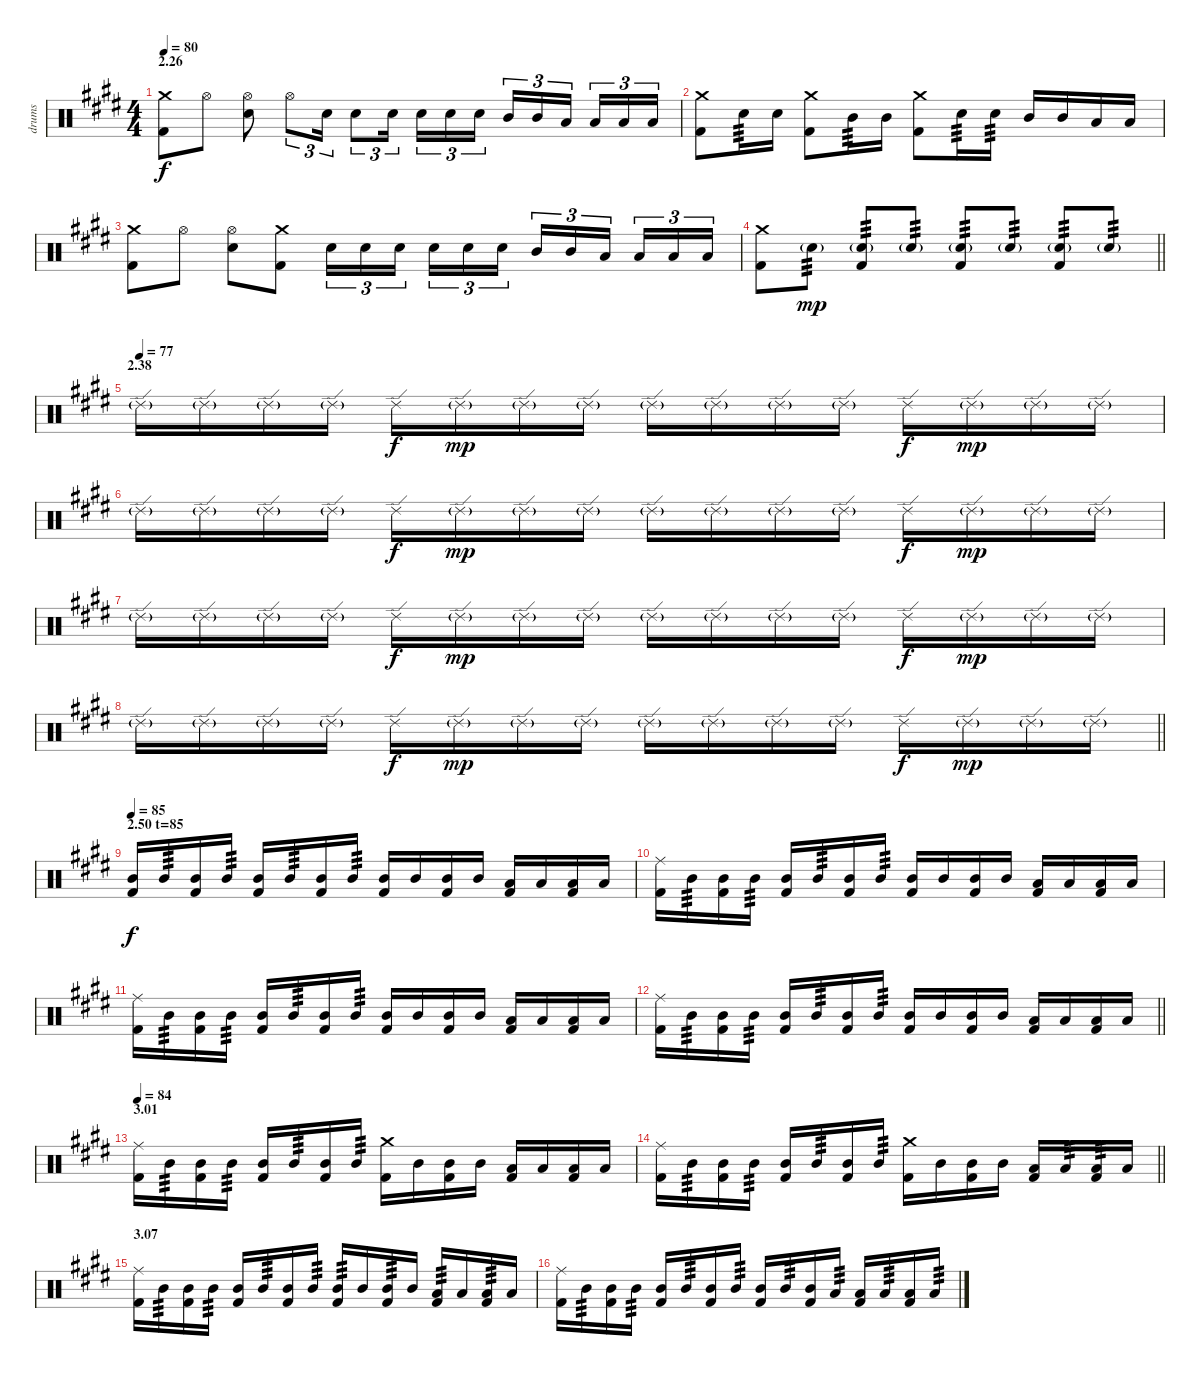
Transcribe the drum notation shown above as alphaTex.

\track ("drums" "drums") {instrument percussion}
\staff {score}
\articulation defaults
\ts (4 4)
\section ("" "2.26")
\tempo 80
\clef neutral
\ks e
("Crash medium (hit)" "Kick (hit) 2").8{dy f} "Hi-Hat (open)".8 ("Hi-Hat (open)" "Electric Snare (hit)").8 "Hi-Hat (open)".8{tu (3 2)} "Electric Snare (hit)".16{tu (3 2)} "Electric Snare (hit)".8{tu (3 2)} "Electric Snare (hit)".16{tu (3 2) beam splitsecondary} "Electric Snare (hit)".16{tu (3 2)} "Electric Snare (hit)".16{tu (3 2)} "Electric Snare (hit)".16{tu (3 2)} "Mid Tom (hit)".16{tu (3 2)} "Mid Tom (hit)".16{tu (3 2)} "Low Tom (hit)".16{tu (3 2) beam splitsecondary} "Low Tom (hit)".16{tu (3 2)} "Low Tom (hit)".16{tu (3 2)} "Low Tom (hit)".16{tu (3 2)} |
("Crash medium (hit)" "Kick (hit) 2").8 "Electric Snare (hit)".16{tp 3} "Electric Snare (hit)".16 ("Crash medium (hit)" "Kick (hit) 2").8 "Mid Tom (hit)".16{tp 3} "Mid Tom (hit)".16 ("Crash medium (hit)" "Kick (hit) 2").8 "Electric Snare (hit)".16{tp 3} "Electric Snare (hit)".16{tp 3} "Mid Tom (hit)".16 "Mid Tom (hit)".16 "Low Tom (hit)".16 "Low Tom (hit)".16 |
("Crash medium (hit)" "Kick (hit) 2").8 "Hi-Hat (open)".8 ("Hi-Hat (open)" "Electric Snare (hit)").8 ("Crash medium (hit)" "Kick (hit) 2").8 "Electric Snare (hit)".16{tu (3 2)} "Electric Snare (hit)".16{tu (3 2)} "Electric Snare (hit)".16{tu (3 2) beam splitsecondary} "Electric Snare (hit)".16{tu (3 2)} "Electric Snare (hit)".16{tu (3 2)} "Electric Snare (hit)".16{tu (3 2)} "Mid Tom (hit)".16{tu (3 2)} "Mid Tom (hit)".16{tu (3 2)} "Low Tom (hit)".16{tu (3 2) beam splitsecondary} "Low Tom (hit)".16{tu (3 2)} "Low Tom (hit)".16{tu (3 2)} "Low Tom (hit)".16{tu (3 2)} |
\barLineRight lightlight
("Crash medium (hit)" "Kick (hit) 2").8 "Electric Snare (hit)"{g}.8{tp 3 dy mp} ("Electric Snare (hit)"{g} "Kick (hit) 2").8{tp 3} "Electric Snare (hit)"{g}.8{tp 3} ("Electric Snare (hit)"{g} "Kick (hit) 2").8{tp 3} "Electric Snare (hit)"{g}.8{tp 3} ("Electric Snare (hit)"{g} "Kick (hit) 2").8{tp 3} "Electric Snare (hit)"{g}.8{tp 3} |
\section ("" "2.38")
\tempo (77)
"Ride (edge) 2"{g}.16 "Ride (edge) 2"{g}.16 "Ride (edge) 2"{g}.16 "Ride (edge) 2"{g}.16 "Ride (edge) 2".16{dy f} "Ride (edge) 2"{g}.16{dy mp} "Ride (edge) 2"{g}.16 "Ride (edge) 2"{g}.16 "Ride (edge) 2"{g}.16 "Ride (edge) 2"{g}.16 "Ride (edge) 2"{g}.16 "Ride (edge) 2"{g}.16 "Ride (edge) 2".16{dy f} "Ride (edge) 2"{g}.16{dy mp} "Ride (edge) 2"{g}.16 "Ride (edge) 2"{g}.16 |
"Ride (edge) 2"{g}.16 "Ride (edge) 2"{g}.16 "Ride (edge) 2"{g}.16 "Ride (edge) 2"{g}.16 "Ride (edge) 2".16{dy f} "Ride (edge) 2"{g}.16{dy mp} "Ride (edge) 2"{g}.16 "Ride (edge) 2"{g}.16 "Ride (edge) 2"{g}.16 "Ride (edge) 2"{g}.16 "Ride (edge) 2"{g}.16 "Ride (edge) 2"{g}.16 "Ride (edge) 2".16{dy f} "Ride (edge) 2"{g}.16{dy mp} "Ride (edge) 2"{g}.16 "Ride (edge) 2"{g}.16 |
"Ride (edge) 2"{g}.16 "Ride (edge) 2"{g}.16 "Ride (edge) 2"{g}.16 "Ride (edge) 2"{g}.16 "Ride (edge) 2".16{dy f} "Ride (edge) 2"{g}.16{dy mp} "Ride (edge) 2"{g}.16 "Ride (edge) 2"{g}.16 "Ride (edge) 2"{g}.16 "Ride (edge) 2"{g}.16 "Ride (edge) 2"{g}.16 "Ride (edge) 2"{g}.16 "Ride (edge) 2".16{dy f} "Ride (edge) 2"{g}.16{dy mp} "Ride (edge) 2"{g}.16 "Ride (edge) 2"{g}.16 |
\barLineRight lightlight "Ride (edge) 2"{g}.16 "Ride (edge) 2"{g}.16 "Ride (edge) 2"{g}.16 "Ride (edge) 2"{g}.16 "Ride (edge) 2".16{dy f} "Ride (edge) 2"{g}.16{dy mp} "Ride (edge) 2"{g}.16 "Ride (edge) 2"{g}.16 "Ride (edge) 2"{g}.16 "Ride (edge) 2"{g}.16 "Ride (edge) 2"{g}.16 "Ride (edge) 2"{g}.16 "Ride (edge) 2".16{dy f} "Ride (edge) 2"{g}.16{dy mp} "Ride (edge) 2"{g}.16 "Ride (edge) 2"{g}.16
|
\section ("" "2.50 t=85")
\tempo 85
("Mid Tom (hit)" "Kick (hit) 2").16{dy f} "Mid Tom (hit)".16{tp 3} ("Mid Tom (hit)" "Kick (hit) 2").16 "Mid Tom (hit)".16{tp 3} ("Mid Tom (hit)" "Kick (hit) 2").16 "Mid Tom (hit)".16{tp 3} ("Mid Tom (hit)" "Kick (hit) 2").16 "Mid Tom (hit)".16{tp 3} ("Mid Tom (hit)" "Kick (hit) 2").16 "Mid Tom (hit)".16 ("Mid Tom (hit)" "Kick (hit) 2").16 "Mid Tom (hit)".16 ("Low Tom (hit)" "Kick (hit) 2").16 "Low Tom (hit)".16 ("Low Tom (hit)" "Kick (hit) 2").16 "Low Tom (hit)".16 |
("Ride (middle)" "Kick (hit) 2").16 "Mid Tom (hit)".16{tp 3} ("Mid Tom (hit)" "Kick (hit) 2").16 "Mid Tom (hit)".16{tp 3} ("Mid Tom (hit)" "Kick (hit) 2").16 "Mid Tom (hit)".16{tp 3} ("Mid Tom (hit)" "Kick (hit) 2").16 "Mid Tom (hit)".16{tp 3} ("Mid Tom (hit)" "Kick (hit) 2").16 "Mid Tom (hit)".16 ("Mid Tom (hit)" "Kick (hit) 2").16 "Mid Tom (hit)".16 ("Low Tom (hit)" "Kick (hit) 2").16 "Low Tom (hit)".16 ("Low Tom (hit)" "Kick (hit) 2").16 "Low Tom (hit)".16 |
("Ride (middle)" "Kick (hit) 2").16 "Mid Tom (hit)".16{tp 3} ("Mid Tom (hit)" "Kick (hit) 2").16 "Mid Tom (hit)".16{tp 3} ("Mid Tom (hit)" "Kick (hit) 2").16 "Mid Tom (hit)".16{tp 3} ("Mid Tom (hit)" "Kick (hit) 2").16 "Mid Tom (hit)".16{tp 3} ("Mid Tom (hit)" "Kick (hit) 2").16 "Mid Tom (hit)".16 ("Mid Tom (hit)" "Kick (hit) 2").16 "Mid Tom (hit)".16 ("Low Tom (hit)" "Kick (hit) 2").16 "Low Tom (hit)".16 ("Low Tom (hit)" "Kick (hit) 2").16 "Low Tom (hit)".16 |
\barLineRight lightlight
("Ride (middle)" "Kick (hit) 2").16 "Mid Tom (hit)".16{tp 3} ("Mid Tom (hit)" "Kick (hit) 2").16 "Mid Tom (hit)".16{tp 3} ("Mid Tom (hit)" "Kick (hit) 2").16 "Mid Tom (hit)".16{tp 3} ("Mid Tom (hit)" "Kick (hit) 2").16 "Mid Tom (hit)".16{tp 3} ("Mid Tom (hit)" "Kick (hit) 2").16 "Mid Tom (hit)".16 ("Mid Tom (hit)" "Kick (hit) 2").16 "Mid Tom (hit)".16 ("Low Tom (hit)" "Kick (hit) 2").16 "Low Tom (hit)".16 ("Low Tom (hit)" "Kick (hit) 2").16 "Low Tom (hit)".16 |
\section ("" "3.01")
\tempo 84
("Ride (middle)" "Kick (hit) 2").16 "Mid Tom (hit)".16{tp 3} ("Mid Tom (hit)" "Kick (hit) 2").16 "Mid Tom (hit)".16{tp 3} ("Mid Tom (hit)" "Kick (hit) 2").16 "Mid Tom (hit)".16{tp 3} ("Mid Tom (hit)" "Kick (hit) 2").16 "Mid Tom (hit)".16{tp 3} ("Crash medium (hit)" "Kick (hit) 2").16 "Mid Tom (hit)".16 ("Mid Tom (hit)" "Kick (hit) 2").16 "Mid Tom (hit)".16 ("Low Tom (hit)" "Kick (hit) 2").16 "Low Tom (hit)".16 ("Low Tom (hit)" "Kick (hit) 2").16 "Low Tom (hit)".16 |
\barLineRight lightlight
("Ride (middle)" "Kick (hit) 2").16 "Mid Tom (hit)".16{tp 3} ("Mid Tom (hit)" "Kick (hit) 2").16 "Mid Tom (hit)".16{tp 3} ("Mid Tom (hit)" "Kick (hit) 2").16 "Mid Tom (hit)".16{tp 3} ("Mid Tom (hit)" "Kick (hit) 2").16 "Mid Tom (hit)".16{tp 3} ("Crash medium (hit)" "Kick (hit) 2").16 "Mid Tom (hit)".16 ("Mid Tom (hit)" "Kick (hit) 2").16 "Mid Tom (hit)".16 ("Low Tom (hit)" "Kick (hit) 2").16 "Low Tom (hit)".16{tp 3} ("Low Tom (hit)" "Kick (hit) 2").16{tp 3} "Low Tom (hit)".16 |
\section ("" "3.07")
("Ride (middle)" "Kick (hit) 2").16 "Mid Tom (hit)".16{tp 3} ("Mid Tom (hit)" "Kick (hit) 2").16 "Mid Tom (hit)".16{tp 3} ("Mid Tom (hit)" "Kick (hit) 2").16 "Mid Tom (hit)".16{tp 3} ("Mid Tom (hit)" "Kick (hit) 2").16 "Mid Tom (hit)".16{tp 3} ("Mid Tom (hit)" "Kick (hit) 2").16{tp 3} "Mid Tom (hit)".16 ("Mid Tom (hit)" "Kick (hit) 2").16{tp 3} "Mid Tom (hit)".16 ("Low Tom (hit)" "Kick (hit) 2").16{tp 3} "Low Tom (hit)".16 ("Low Tom (hit)" "Kick (hit) 2").16{tp 3} "Low Tom (hit)".16 |
("Ride (middle)" "Kick (hit) 2").16 "Mid Tom (hit)".16{tp 3} ("Mid Tom (hit)" "Kick (hit) 2").16 "Mid Tom (hit)".16{tp 3} ("Mid Tom (hit)" "Kick (hit) 2").16 "Mid Tom (hit)".16{tp 3} ("Mid Tom (hit)" "Kick (hit) 2").16 "Mid Tom (hit)".16{tp 3} ("Mid Tom (hit)" "Kick (hit) 2").16 "Mid Tom (hit)".16{tp 3} ("Mid Tom (hit)" "Kick (hit) 2").16 "Low Tom (hit)".16{tp 3} ("Low Tom (hit)" "Kick (hit) 2").16 "Low Tom (hit)".16{tp 3} ("Low Tom (hit)" "Kick (hit) 2").16 "Low Tom (hit)".16{tp 3}
